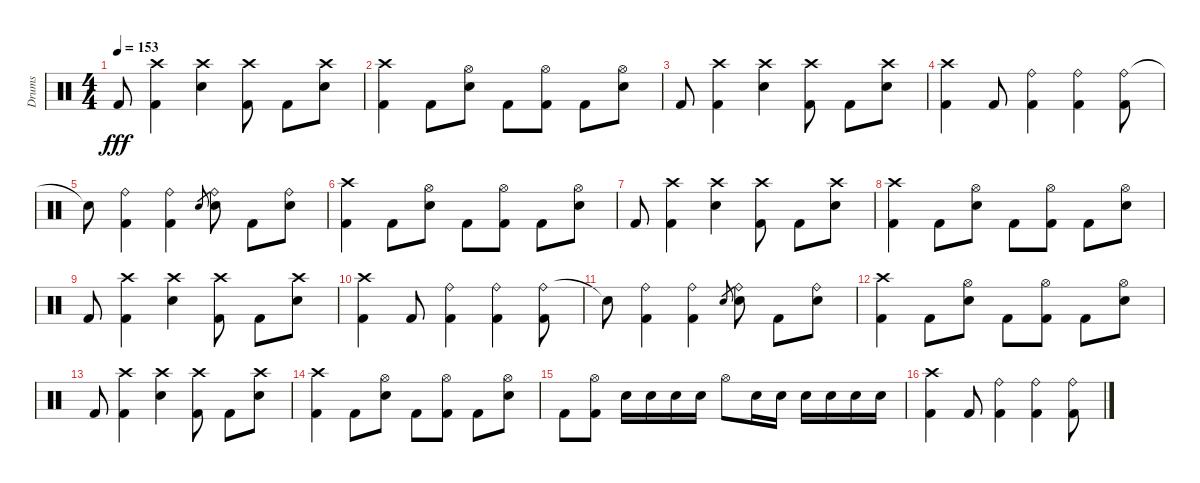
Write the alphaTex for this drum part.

\track ("Drums" "Drums") {instrument percussion}
\staff {score}
\articulation defaults
\ts (4 4)
\tempo 153
\clef neutral
\ks c "Kick (hit) 2".8{dy fff}
("Crash high (hit)" "Kick (hit) 2").4 ("Crash high (hit)" "Electric Snare (hit)").4 ("Crash high (hit)" "Kick (hit) 2").8 "Kick (hit) 2".8 ("Crash high (hit)" "Electric Snare (hit)").8 |
("Crash high (hit)" "Kick (hit) 2").4 "Kick (hit) 2".8 ("Hi-Hat (open)" "Electric Snare (hit)").8 "Kick (hit) 2".8 ("Hi-Hat (open)" "Kick (hit) 2").8 "Kick (hit) 2".8 ("Hi-Hat (open)" "Electric Snare (hit)").8 |
"Kick (hit) 2".8 ("Crash high (hit)" "Kick (hit) 2").4 ("Crash high (hit)" "Electric Snare (hit)").4 ("Crash high (hit)" "Kick (hit) 2").8 "Kick (hit) 2".8 ("Crash high (hit)" "Electric Snare (hit)").8 |
("Crash high (hit)" "Kick (hit) 2").4 "Kick (hit) 2".8 ("Ride (bell)" "Kick (hit) 2").4 ("Ride (bell)" "Kick (hit) 2").4 ("Ride (bell)" "Kick (hit) 2").8 |
"Snare (hit)"{t}.8 ("Ride (bell)" "Kick (hit) 2").4 ("Ride (bell)" "Kick (hit) 2").4 "Electric Snare (hit)".8{gr} ("Ride (bell)" "Electric Snare (hit)").8 "Kick (hit) 2".8 ("Ride (bell)" "Electric Snare (hit)").8 |
("Crash high (hit)" "Kick (hit) 2").4 "Kick (hit) 2".8 ("Hi-Hat (open)" "Electric Snare (hit)").8 "Kick (hit) 2".8 ("Hi-Hat (open)" "Kick (hit) 2").8 "Kick (hit) 2".8 ("Hi-Hat (open)" "Electric Snare (hit)").8 |
"Kick (hit) 2".8 ("Crash high (hit)" "Kick (hit) 2").4 ("Crash high (hit)" "Electric Snare (hit)").4 ("Crash high (hit)" "Kick (hit) 2").8 "Kick (hit) 2".8 ("Crash high (hit)" "Electric Snare (hit)").8 |
("Crash high (hit)" "Kick (hit) 2").4 "Kick (hit) 2".8 ("Hi-Hat (open)" "Electric Snare (hit)").8 "Kick (hit) 2".8 ("Hi-Hat (open)" "Kick (hit) 2").8 "Kick (hit) 2".8 ("Hi-Hat (open)" "Electric Snare (hit)").8 |
"Kick (hit) 2".8 ("Crash high (hit)" "Kick (hit) 2").4 ("Crash high (hit)" "Electric Snare (hit)").4 ("Crash high (hit)" "Kick (hit) 2").8 "Kick (hit) 2".8 ("Crash high (hit)" "Electric Snare (hit)").8 |
("Crash high (hit)" "Kick (hit) 2").4 "Kick (hit) 2".8 ("Ride (bell)" "Kick (hit) 2").4 ("Ride (bell)" "Kick (hit) 2").4 ("Ride (bell)" "Kick (hit) 2").8 |
"Snare (hit)"{t}.8 ("Ride (bell)" "Kick (hit) 2").4 ("Ride (bell)" "Kick (hit) 2").4 "Electric Snare (hit)".8{gr} ("Ride (bell)" "Electric Snare (hit)").8 "Kick (hit) 2".8 ("Ride (bell)" "Electric Snare (hit)").8 |
("Crash high (hit)" "Kick (hit) 2").4 "Kick (hit) 2".8 ("Hi-Hat (open)" "Electric Snare (hit)").8 "Kick (hit) 2".8 ("Hi-Hat (open)" "Kick (hit) 2").8 "Kick (hit) 2".8 ("Hi-Hat (open)" "Electric Snare (hit)").8 |
"Kick (hit) 2".8 ("Crash high (hit)" "Kick (hit) 2").4 ("Crash high (hit)" "Electric Snare (hit)").4 ("Crash high (hit)" "Kick (hit) 2").8 "Kick (hit) 2".8 ("Crash high (hit)" "Electric Snare (hit)").8 |
("Crash high (hit)" "Kick (hit) 2").4 "Kick (hit) 2".8 ("Hi-Hat (open)" "Electric Snare (hit)").8 "Kick (hit) 2".8 ("Hi-Hat (open)" "Kick (hit) 2").8 "Kick (hit) 2".8 ("Hi-Hat (open)" "Electric Snare (hit)").8 |
"Kick (hit) 2".8 ("Hi-Hat (open)" "Kick (hit) 2").8 "Electric Snare (hit)".16 "Electric Snare (hit)".16 "Electric Snare (hit)".16 "Electric Snare (hit)".16 "Hi-Hat (open)".8 "Electric Snare (hit)".16 "Electric Snare (hit)".16 "Electric Snare (hit)".16 "Electric Snare (hit)".16 "Electric Snare (hit)".16 "Electric Snare (hit)".16 |
("Crash high (hit)" "Kick (hit) 2").4 "Kick (hit) 2".8 ("Ride (bell)" "Kick (hit) 2").4 ("Ride (bell)" "Kick (hit) 2").4 ("Ride (bell)" "Kick (hit) 2").8
